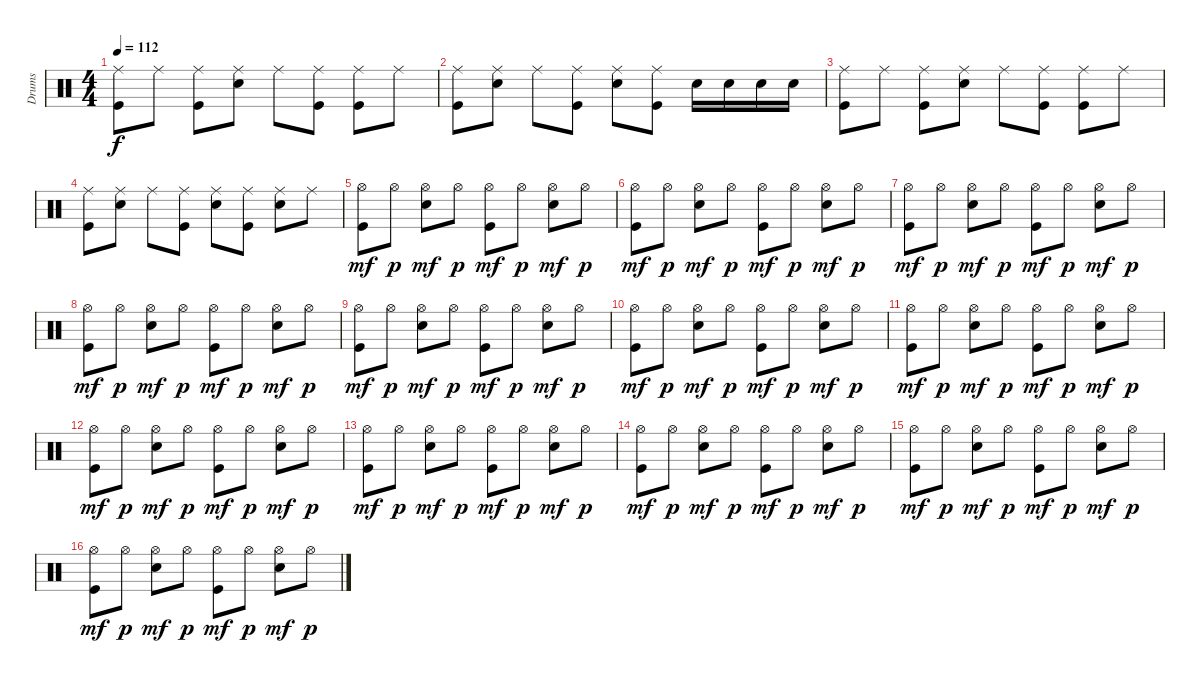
\track ("Drums" "Drums") {instrument percussion}
\staff {score}
\articulation defaults
\ts (4 4)
\tempo 112
\clef neutral
\ks c
("Ride (middle)" "Kick (hit)").8{dy f} "Ride (middle)".8 ("Ride (middle)" "Kick (hit)").8 ("Ride (middle)" "Snare (hit) 2").8 "Ride (middle)".8 ("Ride (middle)" "Kick (hit)").8 ("Ride (middle)" "Kick (hit)").8 "Ride (middle)".8 |
("Ride (middle)" "Kick (hit)").8 ("Ride (middle)" "Snare (hit) 2").8 "Ride (middle)".8 ("Ride (middle)" "Kick (hit)").8 ("Ride (middle)" "Snare (hit) 2").8 ("Ride (middle)" "Kick (hit)").8 "Snare (hit) 2".16 "Snare (hit) 2".16 "Snare (hit) 2".16 "Snare (hit) 2".16 |
("Ride (middle)" "Kick (hit)").8 "Ride (middle)".8 ("Ride (middle)" "Kick (hit)").8 ("Ride (middle)" "Snare (hit) 2").8 "Ride (middle)".8 ("Ride (middle)" "Kick (hit)").8 ("Ride (middle)" "Kick (hit)").8 "Ride (middle)".8 |
("Ride (middle)" "Kick (hit)").8 ("Ride (middle)" "Snare (hit) 2").8 "Ride (middle)".8 ("Ride (middle)" "Kick (hit)").8 ("Ride (middle)" "Snare (hit) 2").8 ("Ride (middle)" "Kick (hit)").8 ("Ride (middle)" "Snare (hit) 2").8 "Ride (middle)".8 |
("Hi-Hat (open)" "Kick (hit)").8{dy mf} "Hi-Hat (open)".8{dy p} ("Hi-Hat (open)" "Snare (hit) 2").8{dy mf} "Hi-Hat (open)".8{dy p} ("Hi-Hat (open)" "Kick (hit)").8{dy mf} "Hi-Hat (open)".8{dy p} ("Hi-Hat (open)" "Snare (hit) 2").8{dy mf} "Hi-Hat (open)".8{dy p} |
("Hi-Hat (open)" "Kick (hit)").8{dy mf} "Hi-Hat (open)".8{dy p} ("Hi-Hat (open)" "Snare (hit) 2").8{dy mf} "Hi-Hat (open)".8{dy p} ("Hi-Hat (open)" "Kick (hit)").8{dy mf} "Hi-Hat (open)".8{dy p} ("Hi-Hat (open)" "Snare (hit) 2").8{dy mf} "Hi-Hat (open)".8{dy p} |
("Hi-Hat (open)" "Kick (hit)").8{dy mf} "Hi-Hat (open)".8{dy p} ("Hi-Hat (open)" "Snare (hit) 2").8{dy mf} "Hi-Hat (open)".8{dy p} ("Hi-Hat (open)" "Kick (hit)").8{dy mf} "Hi-Hat (open)".8{dy p} ("Hi-Hat (open)" "Snare (hit) 2").8{dy mf} "Hi-Hat (open)".8{dy p} |
("Hi-Hat (open)" "Kick (hit)").8{dy mf} "Hi-Hat (open)".8{dy p} ("Hi-Hat (open)" "Snare (hit) 2").8{dy mf} "Hi-Hat (open)".8{dy p} ("Hi-Hat (open)" "Kick (hit)").8{dy mf} "Hi-Hat (open)".8{dy p} ("Hi-Hat (open)" "Snare (hit) 2").8{dy mf} "Hi-Hat (open)".8{dy p} |
("Hi-Hat (open)" "Kick (hit)").8{dy mf} "Hi-Hat (open)".8{dy p} ("Hi-Hat (open)" "Snare (hit) 2").8{dy mf} "Hi-Hat (open)".8{dy p} ("Hi-Hat (open)" "Kick (hit)").8{dy mf} "Hi-Hat (open)".8{dy p} ("Hi-Hat (open)" "Snare (hit) 2").8{dy mf} "Hi-Hat (open)".8{dy p} |
("Hi-Hat (open)" "Kick (hit)").8{dy mf} "Hi-Hat (open)".8{dy p} ("Hi-Hat (open)" "Snare (hit) 2").8{dy mf} "Hi-Hat (open)".8{dy p} ("Hi-Hat (open)" "Kick (hit)").8{dy mf} "Hi-Hat (open)".8{dy p} ("Hi-Hat (open)" "Snare (hit) 2").8{dy mf} "Hi-Hat (open)".8{dy p} |
("Hi-Hat (open)" "Kick (hit)").8{dy mf} "Hi-Hat (open)".8{dy p} ("Hi-Hat (open)" "Snare (hit) 2").8{dy mf} "Hi-Hat (open)".8{dy p} ("Hi-Hat (open)" "Kick (hit)").8{dy mf} "Hi-Hat (open)".8{dy p} ("Hi-Hat (open)" "Snare (hit) 2").8{dy mf} "Hi-Hat (open)".8{dy p} |
("Hi-Hat (open)" "Kick (hit)").8{dy mf} "Hi-Hat (open)".8{dy p} ("Hi-Hat (open)" "Snare (hit) 2").8{dy mf} "Hi-Hat (open)".8{dy p} ("Hi-Hat (open)" "Kick (hit)").8{dy mf} "Hi-Hat (open)".8{dy p} ("Hi-Hat (open)" "Snare (hit) 2").8{dy mf} "Hi-Hat (open)".8{dy p} |
("Hi-Hat (open)" "Kick (hit)").8{dy mf} "Hi-Hat (open)".8{dy p} ("Hi-Hat (open)" "Snare (hit) 2").8{dy mf} "Hi-Hat (open)".8{dy p} ("Hi-Hat (open)" "Kick (hit)").8{dy mf} "Hi-Hat (open)".8{dy p} ("Hi-Hat (open)" "Snare (hit) 2").8{dy mf} "Hi-Hat (open)".8{dy p} |
("Hi-Hat (open)" "Kick (hit)").8{dy mf} "Hi-Hat (open)".8{dy p} ("Hi-Hat (open)" "Snare (hit) 2").8{dy mf} "Hi-Hat (open)".8{dy p} ("Hi-Hat (open)" "Kick (hit)").8{dy mf} "Hi-Hat (open)".8{dy p} ("Hi-Hat (open)" "Snare (hit) 2").8{dy mf} "Hi-Hat (open)".8{dy p} |
("Hi-Hat (open)" "Kick (hit)").8{dy mf} "Hi-Hat (open)".8{dy p} ("Hi-Hat (open)" "Snare (hit) 2").8{dy mf} "Hi-Hat (open)".8{dy p} ("Hi-Hat (open)" "Kick (hit)").8{dy mf} "Hi-Hat (open)".8{dy p} ("Hi-Hat (open)" "Snare (hit) 2").8{dy mf} "Hi-Hat (open)".8{dy p} |
("Hi-Hat (open)" "Kick (hit)").8{dy mf} "Hi-Hat (open)".8{dy p} ("Hi-Hat (open)" "Snare (hit) 2").8{dy mf} "Hi-Hat (open)".8{dy p} ("Hi-Hat (open)" "Kick (hit)").8{dy mf} "Hi-Hat (open)".8{dy p} ("Hi-Hat (open)" "Snare (hit) 2").8{dy mf} "Hi-Hat (open)".8{dy p}
